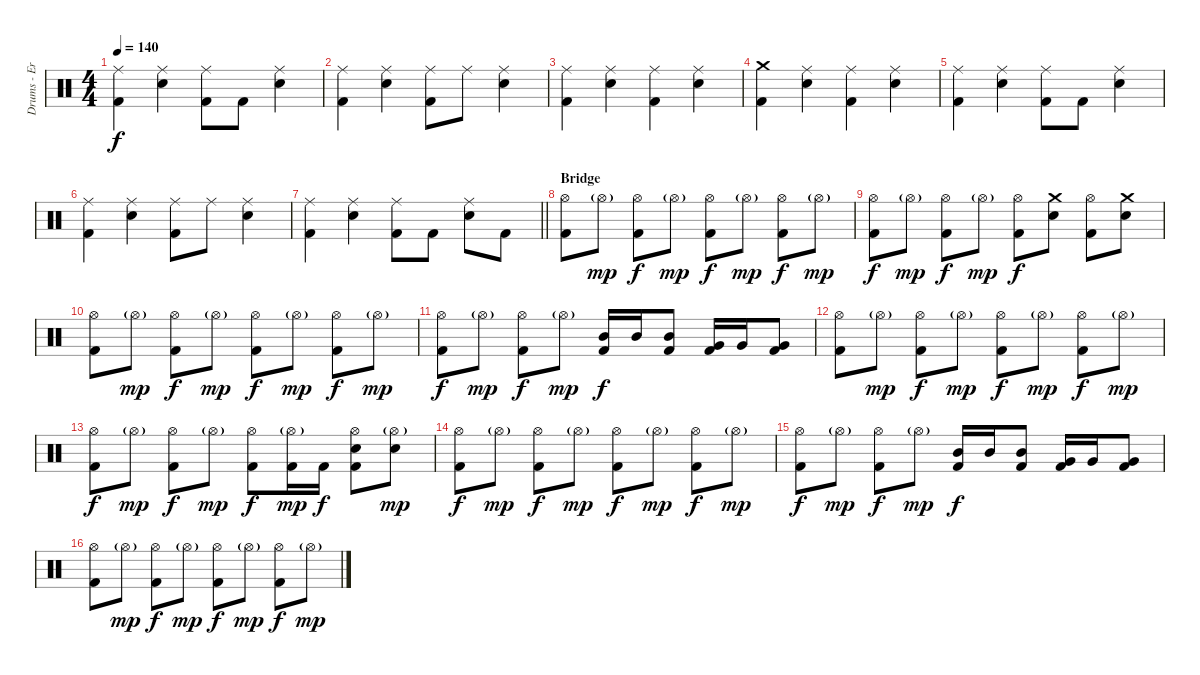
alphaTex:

\track ("Drums - Eric Young" "Drums - Er") {instrument percussion}
\staff {score}
\articulation defaults
\ts (4 4)
\tempo 140
\clef neutral
\ks c
("Ride (middle)" "Kick (hit) 2").4{dy f} ("Ride (middle)" "Electric Snare (hit)").4 ("Ride (middle)" "Kick (hit) 2").8 "Kick (hit) 2".8 ("Ride (middle)" "Electric Snare (hit)").4 |
("Ride (middle)" "Kick (hit) 2").4 ("Ride (middle)" "Electric Snare (hit)").4 ("Ride (middle)" "Kick (hit) 2").8 "Ride (middle)".8 ("Ride (middle)" "Electric Snare (hit)").4 |
("Ride (middle)" "Kick (hit) 2").4 ("Ride (middle)" "Electric Snare (hit)").4 ("Ride (middle)" "Kick (hit) 2").4 ("Ride (middle)" "Electric Snare (hit)").4 |
("Crash medium (hit)" "Kick (hit) 2").4 ("Ride (middle)" "Electric Snare (hit)").4 ("Ride (middle)" "Kick (hit) 2").4 ("Ride (middle)" "Electric Snare (hit)").4 |
("Ride (middle)" "Kick (hit) 2").4 ("Ride (middle)" "Electric Snare (hit)").4 ("Ride (middle)" "Kick (hit) 2").8 "Kick (hit) 2".8 ("Ride (middle)" "Electric Snare (hit)").4 |
("Ride (middle)" "Kick (hit) 2").4 ("Ride (middle)" "Electric Snare (hit)").4 ("Ride (middle)" "Kick (hit) 2").8 "Ride (middle)".8 ("Ride (middle)" "Electric Snare (hit)").4 |
\barLineRight lightlight
("Ride (middle)" "Kick (hit) 2").4 ("Ride (middle)" "Electric Snare (hit)").4 ("Ride (middle)" "Kick (hit) 2").8 "Kick (hit) 2".8 ("Ride (middle)" "Electric Snare (hit)").8 "Kick (hit) 2".8 |
\section ("" "Bridge")
("Hi-Hat (open)" "Kick (hit) 2").8 "Hi-Hat (open)"{g}.8{dy mp} ("Hi-Hat (open)" "Kick (hit) 2").8{dy f} "Hi-Hat (open)"{g}.8{dy mp} ("Hi-Hat (open)" "Kick (hit) 2").8{dy f} "Hi-Hat (open)"{g}.8{dy mp} ("Hi-Hat (open)" "Kick (hit) 2").8{dy f} "Hi-Hat (open)"{g}.8{dy mp} |
("Hi-Hat (open)" "Kick (hit) 2").8{dy f} "Hi-Hat (open)"{g}.8{dy mp} ("Hi-Hat (open)" "Kick (hit) 2").8{dy f} "Hi-Hat (open)"{g}.8{dy mp} ("Hi-Hat (open)" "Kick (hit) 2").8{dy f} ("Crash medium (hit)" "Electric Snare (hit)").8 ("Hi-Hat (open)" "Kick (hit) 2").8 ("Crash medium (hit)" "Electric Snare (hit)").8 |
("Hi-Hat (open)" "Kick (hit) 2").8 "Hi-Hat (open)"{g}.8{dy mp} ("Hi-Hat (open)" "Kick (hit) 2").8{dy f} "Hi-Hat (open)"{g}.8{dy mp} ("Hi-Hat (open)" "Kick (hit) 2").8{dy f} "Hi-Hat (open)"{g}.8{dy mp} ("Hi-Hat (open)" "Kick (hit) 2").8{dy f} "Hi-Hat (open)"{g}.8{dy mp} |
("Hi-Hat (open)" "Kick (hit) 2").8{dy f} "Hi-Hat (open)"{g}.8{dy mp} ("Hi-Hat (open)" "Kick (hit) 2").8{dy f} "Hi-Hat (open)"{g}.8{dy mp} ("Mid Tom (hit)" "Kick (hit) 2").16{dy f} "Mid Tom (hit)".16 ("Mid Tom (hit)" "Kick (hit) 2").8 ("Very Low Tom (hit)" "Kick (hit) 2").16 "Very Low Tom (hit)".16 ("Very Low Tom (hit)" "Kick (hit) 2").8 |
("Hi-Hat (open)" "Kick (hit) 2").8 "Hi-Hat (open)"{g}.8{dy mp} ("Hi-Hat (open)" "Kick (hit) 2").8{dy f} "Hi-Hat (open)"{g}.8{dy mp} ("Hi-Hat (open)" "Kick (hit) 2").8{dy f} "Hi-Hat (open)"{g}.8{dy mp} ("Hi-Hat (open)" "Kick (hit) 2").8{dy f} "Hi-Hat (open)"{g}.8{dy mp} |
("Hi-Hat (open)" "Kick (hit) 2").8{dy f} "Hi-Hat (open)"{g}.8{dy mp} ("Hi-Hat (open)" "Kick (hit) 2").8{dy f} "Hi-Hat (open)"{g}.8{dy mp} ("Hi-Hat (open)" "Kick (hit) 2").8{dy f} ("Hi-Hat (open)"{g} "Kick (hit) 2").16{dy mp} "Kick (hit) 2".16{dy f} ("Hi-Hat (open)" "Electric Snare (hit)" "Kick (hit) 2").8 ("Hi-Hat (open)"{g} "Electric Snare (hit)").8{dy mp} |
("Hi-Hat (open)" "Kick (hit) 2").8{dy f} "Hi-Hat (open)"{g}.8{dy mp} ("Hi-Hat (open)" "Kick (hit) 2").8{dy f} "Hi-Hat (open)"{g}.8{dy mp} ("Hi-Hat (open)" "Kick (hit) 2").8{dy f} "Hi-Hat (open)"{g}.8{dy mp} ("Hi-Hat (open)" "Kick (hit) 2").8{dy f} "Hi-Hat (open)"{g}.8{dy mp} |
("Hi-Hat (open)" "Kick (hit) 2").8{dy f} "Hi-Hat (open)"{g}.8{dy mp} ("Hi-Hat (open)" "Kick (hit) 2").8{dy f} "Hi-Hat (open)"{g}.8{dy mp} ("Mid Tom (hit)" "Kick (hit) 2").16{dy f} "Mid Tom (hit)".16 ("Mid Tom (hit)" "Kick (hit) 2").8 ("Very Low Tom (hit)" "Kick (hit) 2").16 "Very Low Tom (hit)".16 ("Very Low Tom (hit)" "Kick (hit) 2").8 |
("Hi-Hat (open)" "Kick (hit) 2").8 "Hi-Hat (open)"{g}.8{dy mp} ("Hi-Hat (open)" "Kick (hit) 2").8{dy f} "Hi-Hat (open)"{g}.8{dy mp} ("Hi-Hat (open)" "Kick (hit) 2").8{dy f} "Hi-Hat (open)"{g}.8{dy mp} ("Hi-Hat (open)" "Kick (hit) 2").8{dy f} "Hi-Hat (open)"{g}.8{dy mp}
